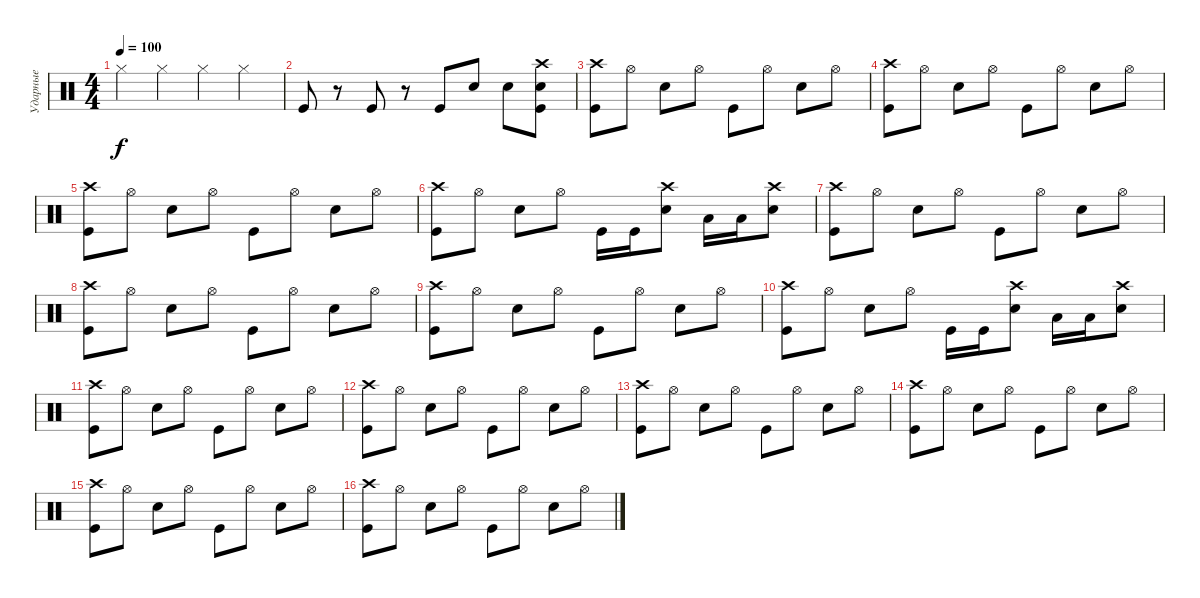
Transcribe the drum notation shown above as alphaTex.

\track ("Ударные" "Ударные") {instrument percussion}
\staff {score}
\articulation defaults
\ts (4 4)
\tempo 100
\clef neutral
\ks c "Hi-Hat (closed)".4{dy f} "Hi-Hat (closed)".4 "Hi-Hat (closed)".4 "Hi-Hat (closed)".4
|
"Kick (hit)".8 r.8 "Kick (hit)".8 r.8 "Kick (hit)".8 "Electric Snare (hit)".8 "Electric Snare (hit)".8 ("Crash high (hit)" "Electric Snare (hit)" "Kick (hit)").8 |
("Crash high (hit)" "Kick (hit)").8 "Hi-Hat (open)".8 "Electric Snare (hit)".8 "Hi-Hat (open)".8 "Kick (hit)".8 "Hi-Hat (open)".8 "Electric Snare (hit)".8 "Hi-Hat (open)".8 |
("Crash high (hit)" "Kick (hit)").8 "Hi-Hat (open)".8 "Electric Snare (hit)".8 "Hi-Hat (open)".8 "Kick (hit)".8 "Hi-Hat (open)".8 "Electric Snare (hit)".8 "Hi-Hat (open)".8 |
("Crash high (hit)" "Kick (hit)").8 "Hi-Hat (open)".8 "Electric Snare (hit)".8 "Hi-Hat (open)".8 "Kick (hit)".8 "Hi-Hat (open)".8 "Electric Snare (hit)".8 "Hi-Hat (open)".8 |
("Crash high (hit)" "Kick (hit)").8 "Hi-Hat (open)".8 "Electric Snare (hit)".8 "Hi-Hat (open)".8 "Kick (hit)".16 "Kick (hit)".16 ("Crash high (hit)" "Electric Snare (hit)").8 "Low Tom (hit)".16 "Low Tom (hit)".16 ("Crash high (hit)" "Electric Snare (hit)").8 |
("Crash high (hit)" "Kick (hit)").8 "Hi-Hat (open)".8 "Electric Snare (hit)".8 "Hi-Hat (open)".8 "Kick (hit)".8 "Hi-Hat (open)".8 "Electric Snare (hit)".8 "Hi-Hat (open)".8 |
("Crash high (hit)" "Kick (hit)").8 "Hi-Hat (open)".8 "Electric Snare (hit)".8 "Hi-Hat (open)".8 "Kick (hit)".8 "Hi-Hat (open)".8 "Electric Snare (hit)".8 "Hi-Hat (open)".8 |
("Crash high (hit)" "Kick (hit)").8 "Hi-Hat (open)".8 "Electric Snare (hit)".8 "Hi-Hat (open)".8 "Kick (hit)".8 "Hi-Hat (open)".8 "Electric Snare (hit)".8 "Hi-Hat (open)".8 |
("Crash high (hit)" "Kick (hit)").8 "Hi-Hat (open)".8 "Electric Snare (hit)".8 "Hi-Hat (open)".8 "Kick (hit)".16 "Kick (hit)".16 ("Crash high (hit)" "Electric Snare (hit)").8 "Low Tom (hit)".16 "Low Tom (hit)".16 ("Crash high (hit)" "Electric Snare (hit)").8 |
("Crash high (hit)" "Kick (hit)").8 "Hi-Hat (open)".8 "Electric Snare (hit)".8 "Hi-Hat (open)".8 "Kick (hit)".8 "Hi-Hat (open)".8 "Electric Snare (hit)".8 "Hi-Hat (open)".8 |
("Crash high (hit)" "Kick (hit)").8 "Hi-Hat (open)".8 "Electric Snare (hit)".8 "Hi-Hat (open)".8 "Kick (hit)".8 "Hi-Hat (open)".8 "Electric Snare (hit)".8 "Hi-Hat (open)".8 |
("Crash high (hit)" "Kick (hit)").8 "Hi-Hat (open)".8 "Electric Snare (hit)".8 "Hi-Hat (open)".8 "Kick (hit)".8 "Hi-Hat (open)".8 "Electric Snare (hit)".8 "Hi-Hat (open)".8 |
("Crash high (hit)" "Kick (hit)").8 "Hi-Hat (open)".8 "Electric Snare (hit)".8 "Hi-Hat (open)".8 "Kick (hit)".8 "Hi-Hat (open)".8 "Electric Snare (hit)".8 "Hi-Hat (open)".8 |
("Crash high (hit)" "Kick (hit)").8 "Hi-Hat (open)".8 "Electric Snare (hit)".8 "Hi-Hat (open)".8 "Kick (hit)".8 "Hi-Hat (open)".8 "Electric Snare (hit)".8 "Hi-Hat (open)".8 |
("Crash high (hit)" "Kick (hit)").8 "Hi-Hat (open)".8 "Electric Snare (hit)".8 "Hi-Hat (open)".8 "Kick (hit)".8 "Hi-Hat (open)".8 "Electric Snare (hit)".8 "Hi-Hat (open)".8
